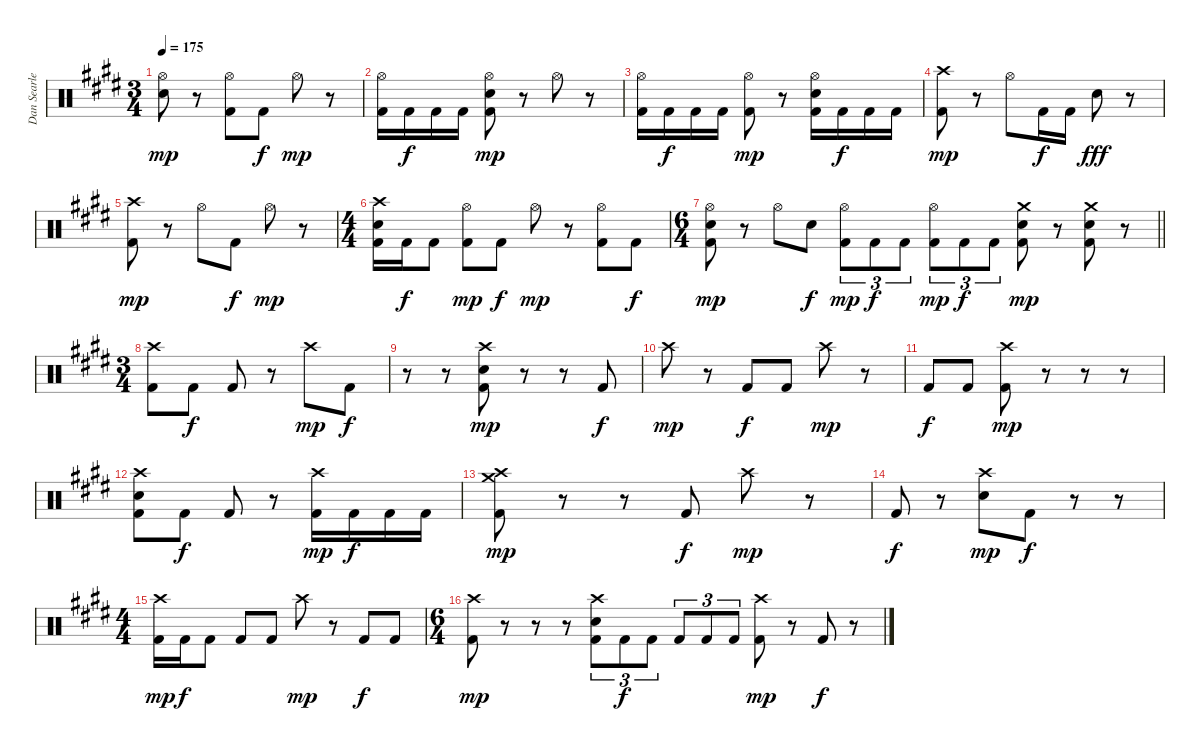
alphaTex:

\track ("Dan Searle" "Dan Searle") {instrument percussion}
\staff {score}
\articulation defaults
\ts (3 4)
\tempo 175
\clef neutral
\ks e
("Hi-Hat (open)" "Electric Snare (hit)").8{dy mp} r.8 ("Hi-Hat (open)" "Kick (hit) 2").8 "Kick (hit) 2".8{dy f} "Hi-Hat (open)".8{dy mp} r.8 |
("Hi-Hat (open)" "Kick (hit) 2").16 "Kick (hit) 2".16{dy f} "Kick (hit) 2".16 "Kick (hit) 2".16 ("Hi-Hat (open)" "Electric Snare (hit)" "Kick (hit) 2").8{dy mp} r.8 "Hi-Hat (open)".8 r.8 |
("Hi-Hat (open)" "Kick (hit) 2").16 "Kick (hit) 2".16{dy f} "Kick (hit) 2".16 "Kick (hit) 2".16 ("Hi-Hat (open)" "Kick (hit) 2").8{dy mp} r.8 ("Hi-Hat (open)" "Electric Snare (hit)" "Kick (hit) 2").16 "Kick (hit) 2".16{dy f} "Kick (hit) 2".16 "Kick (hit) 2".16 |
("Crash high (hit)" "Kick (hit) 2").8{dy mp} r.8 "Hi-Hat (open)".8 "Kick (hit) 2".16{dy f} "Kick (hit) 2".16 "Electric Snare (hit)".8{dy fff} r.8 |
("Crash high (hit)" "Kick (hit) 2").8{dy mp} r.8 "Hi-Hat (open)".8 "Kick (hit) 2".8{dy f} "Hi-Hat (open)".8{dy mp} r.8 |
\ts (4 4)
("Crash high (hit)" "Electric Snare (hit)" "Kick (hit) 2").16 "Kick (hit) 2".16{dy f} "Kick (hit) 2".8 ("Hi-Hat (open)" "Kick (hit) 2").8{dy mp} "Kick (hit) 2".8{dy f} "Hi-Hat (open)".8{dy mp} r.8 ("Hi-Hat (open)" "Kick (hit) 2").8 "Kick (hit) 2".8{dy f} |
\ts (6 4)
\barLineRight lightlight
("Hi-Hat (open)" "Electric Snare (hit)" "Kick (hit) 2").8{dy mp} r.8 "Hi-Hat (open)".8 "Electric Snare (hit)".8{dy f} ("Hi-Hat (open)" "Kick (hit) 2").8{tu (3 2) dy mp} "Kick (hit) 2".8{tu (3 2) dy f} "Kick (hit) 2".8{tu (3 2)} ("Hi-Hat (open)" "Kick (hit) 2").8{tu (3 2) dy mp} "Kick (hit) 2".8{tu (3 2) dy f} "Kick (hit) 2".8{tu (3 2)} ("Crash medium (hit)" "Electric Snare (hit)" "Kick (hit) 2").8{dy mp} r.8 ("Crash medium (hit)" "Electric Snare (hit)" "Kick (hit) 2").8 r.8 |
\ts (3 4)
("Crash high (hit)" "Kick (hit) 2").8 "Kick (hit) 2".8{dy f} "Kick (hit) 2".8 r.8 "Crash high (hit)".8{dy mp} "Kick (hit) 2".8{dy f} |
r.8 r.8 ("Crash high (hit)" "Electric Snare (hit)" "Kick (hit) 2").8{dy mp} r.8 r.8 "Kick (hit) 2".8{dy f} |
"Crash high (hit)".8{dy mp} r.8 "Kick (hit) 2".8{dy f} "Kick (hit) 2".8 "Crash high (hit)".8{dy mp} r.8 |
"Kick (hit) 2".8{dy f} "Kick (hit) 2".8 ("Crash high (hit)" "Kick (hit) 2").8{dy mp} r.8 r.8 r.8 |
("Crash high (hit)" "Electric Snare (hit)" "Kick (hit) 2").8 "Kick (hit) 2".8{dy f} "Kick (hit) 2".8 r.8 ("Crash high (hit)" "Kick (hit) 2").16{dy mp} "Kick (hit) 2".16{dy f} "Kick (hit) 2".16 "Kick (hit) 2".16 |
("Crash high (hit)" "Crash medium (hit)" "Kick (hit) 2").8{dy mp} r.8 r.8 "Kick (hit) 2".8{dy f} "Crash high (hit)".8{dy mp} r.8 |
"Kick (hit) 2".8{dy f} r.8 ("Crash high (hit)" "Electric Snare (hit)").8{dy mp} "Kick (hit) 2".8{dy f} r.8 r.8 |
\ts (4 4)
("Crash high (hit)" "Kick (hit) 2").16{dy mp} "Kick (hit) 2".16{dy f} "Kick (hit) 2".8 "Kick (hit) 2".8 "Kick (hit) 2".8 "Crash high (hit)".8{dy mp} r.8 "Kick (hit) 2".8{dy f} "Kick (hit) 2".8 |
\ts (6 4)
("Crash high (hit)" "Kick (hit) 2").8{dy mp} r.8 r.8 r.8 ("Crash high (hit)" "Electric Snare (hit)" "Kick (hit) 2").8{tu (3 2)} "Kick (hit) 2".8{tu (3 2) dy f} "Kick (hit) 2".8{tu (3 2)} "Kick (hit) 2".8{tu (3 2)} "Kick (hit) 2".8{tu (3 2)} "Kick (hit) 2".8{tu (3 2)} ("Crash high (hit)" "Kick (hit) 2").8{dy mp} r.8 "Kick (hit) 2".8{dy f} r.8
